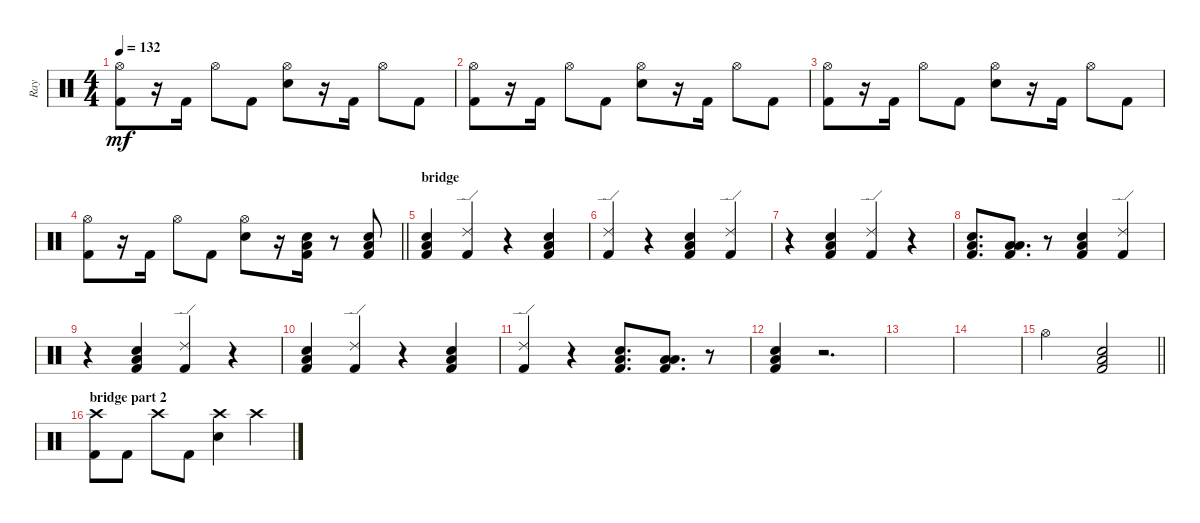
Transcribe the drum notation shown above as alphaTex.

\track ("Ray" "Ray") {instrument percussion}
\staff {score}
\articulation defaults
\ts (4 4)
\tempo 132
\clef neutral
\ks c
("Hi-Hat (open)" "Kick (hit) 2").8{dy mf} r.16 "Kick (hit) 2".16 "Hi-Hat (open)".8 "Kick (hit) 2".8 ("Hi-Hat (open)" "Snare (hit) 2").8 r.16 "Kick (hit) 2".16 "Hi-Hat (open)".8 "Kick (hit) 2".8 |
("Hi-Hat (open)" "Kick (hit) 2").8 r.16 "Kick (hit) 2".16 "Hi-Hat (open)".8 "Kick (hit) 2".8 ("Hi-Hat (open)" "Snare (hit) 2").8 r.16 "Kick (hit) 2".16 "Hi-Hat (open)".8 "Kick (hit) 2".8 |
("Hi-Hat (open)" "Kick (hit) 2").8 r.16 "Kick (hit) 2".16 "Hi-Hat (open)".8 "Kick (hit) 2".8 ("Hi-Hat (open)" "Snare (hit) 2").8 r.16 "Kick (hit) 2".16 "Hi-Hat (open)".8 "Kick (hit) 2".8 |
\barLineRight lightlight
("Hi-Hat (open)" "Kick (hit) 2").8 r.16 "Kick (hit) 2".16 "Hi-Hat (open)".8 "Kick (hit) 2".8 ("Hi-Hat (open)" "Snare (hit) 2").8 r.16 ("Snare (hit) 2" "Low Floor Tom (hit)" "Kick (hit) 2").16 r.8 ("Snare (hit) 2" "Low Floor Tom (hit)" "Kick (hit) 2").8 |
\section ("" "bridge")
("Snare (hit) 2" "Low Floor Tom (hit)" "Kick (hit) 2").4 ("Ride (edge) 2" "Kick (hit) 2").4 r.4 ("Snare (hit) 2" "Low Floor Tom (hit)" "Kick (hit) 2").4 |
("Ride (edge) 2" "Kick (hit) 2").4 r.4 ("Snare (hit) 2" "Low Floor Tom (hit)" "Kick (hit) 2").4 ("Ride (edge) 2" "Kick (hit) 2").4 |
r.4 ("Snare (hit) 2" "Low Floor Tom (hit)" "Kick (hit) 2").4 ("Ride (edge) 2" "Kick (hit) 2").4 r.4 |
("Snare (hit) 2" "Low Tom (hit)" "Kick (hit) 2").8{d} ("Low Tom (hit)" "Low Floor Tom (hit)" "Kick (hit) 2").8{d} r.8 ("Snare (hit) 2" "Low Floor Tom (hit)" "Kick (hit) 2").4 ("Ride (edge) 2" "Kick (hit) 2").4 |
r.4 ("Snare (hit) 2" "Low Floor Tom (hit)" "Kick (hit) 2").4 ("Ride (edge) 2" "Kick (hit) 2").4 r.4 |
("Snare (hit) 2" "Low Floor Tom (hit)" "Kick (hit) 2").4 ("Ride (edge) 2" "Kick (hit) 2").4 r.4 ("Snare (hit) 2" "Low Floor Tom (hit)" "Kick (hit) 2").4 |
("Ride (edge) 2" "Kick (hit) 2").4 r.4 ("Snare (hit) 2" "Low Tom (hit)" "Kick (hit) 2").8{d} ("Low Tom (hit)" "Low Floor Tom (hit)" "Kick (hit) 2").8{d} r.8 |
("Snare (hit) 2" "Low Floor Tom (hit)" "Kick (hit) 2").4 r.2{d} |
|
|
\barLineRight lightlight "Hi-Hat (open)".2
("Snare (hit) 2" "Low Floor Tom (hit)" "Kick (hit) 2").2 |
\section ("" "bridge part 2")
("Crash high (hit)" "Kick (hit) 2").8 "Kick (hit) 2".8 "Crash high (hit)".8 "Kick (hit) 2".8 ("Crash high (hit)" "Snare (hit) 2").4 "Crash high (hit)".4
